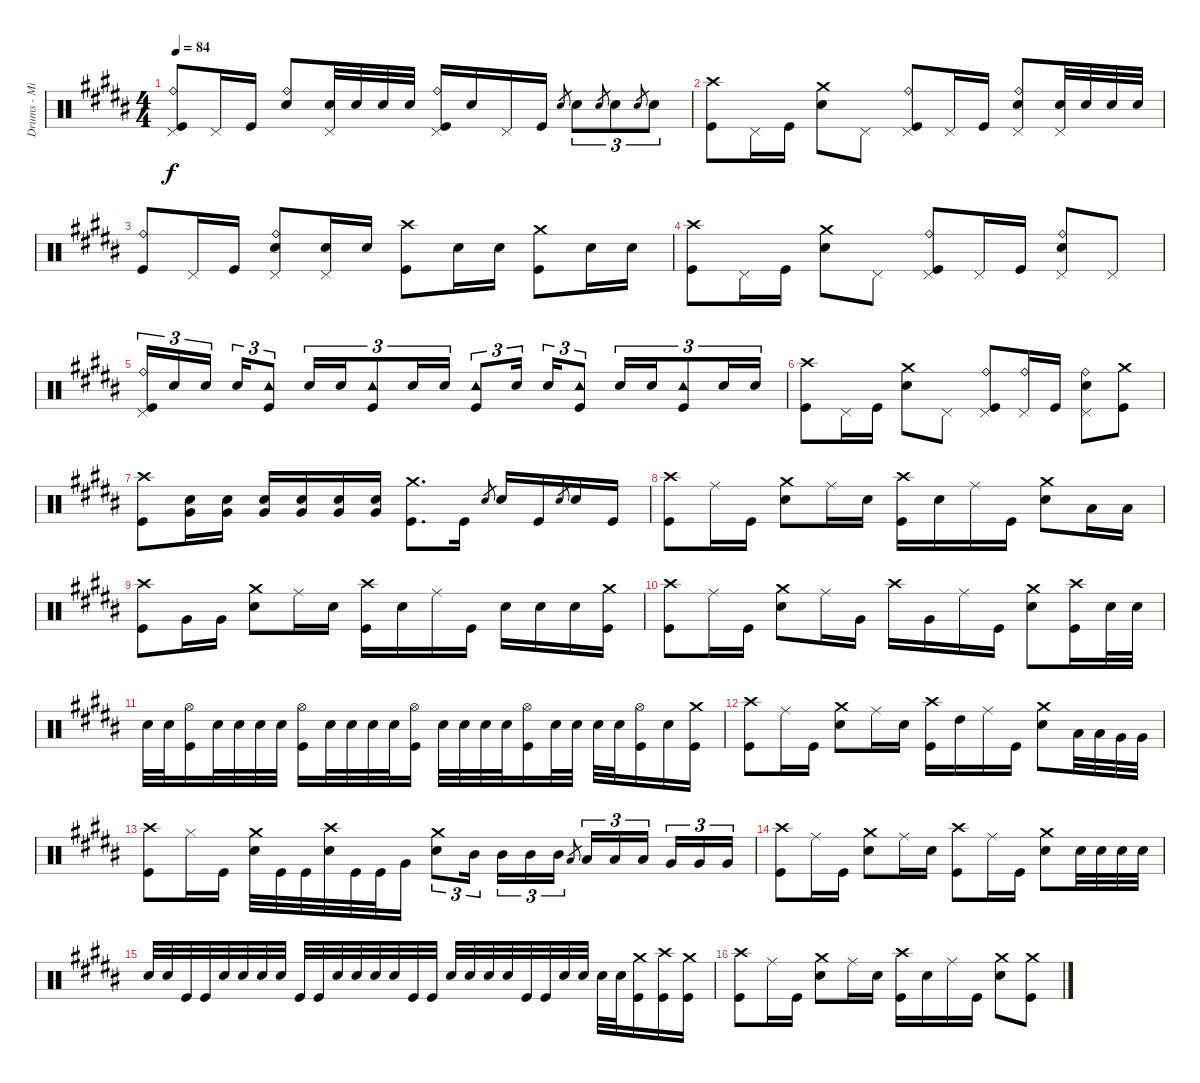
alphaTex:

\track ("Drums - Mike Portnoy" "Drums - Mi") {instrument percussion}
\staff {score}
\articulation defaults
\ts (4 4)
\tempo 84
\clef neutral
\ks b
("Ride (bell)" "Kick (hit)" "Pedal Hi-Hat (hit)").8{dy f} "Pedal Hi-Hat (hit)".16 "Kick (hit)".16 ("Ride (bell)" "Snare (hit) 2").8 ("Snare (hit) 2" "Pedal Hi-Hat (hit)").32 "Snare (hit) 2".32 "Snare (hit) 2".32 "Snare (hit) 2".32 ("Ride (bell)" "Kick (hit)" "Pedal Hi-Hat (hit)").16 "Snare (hit) 2".16 "Pedal Hi-Hat (hit)".16 "Kick (hit)".16 "Snare (hit) 2".8{gr} "Snare (hit) 2".8{tu (3 2)} "Snare (hit) 2".8{gr} "Snare (hit) 2".8{tu (3 2)} "Snare (hit) 2".8{gr} "Snare (hit) 2".8{tu (3 2)} |
("Crash high (hit)" "Kick (hit)").8 "Pedal Hi-Hat (hit)".16 "Kick (hit)".16 ("Crash medium (hit)" "Snare (hit) 2").8 "Pedal Hi-Hat (hit)".8 ("Ride (bell)" "Kick (hit)" "Pedal Hi-Hat (hit)").8 "Pedal Hi-Hat (hit)".16 "Kick (hit)".16 ("Ride (bell)" "Snare (hit) 2" "Pedal Hi-Hat (hit)").8 ("Snare (hit) 2" "Pedal Hi-Hat (hit)").32 "Snare (hit) 2".32 "Snare (hit) 2".32 "Snare (hit) 2".32 |
("Ride (bell)" "Kick (hit)").8 "Pedal Hi-Hat (hit)".16 "Kick (hit)".16 ("Ride (bell)" "Snare (hit) 2" "Pedal Hi-Hat (hit)").8 ("Snare (hit) 2" "Pedal Hi-Hat (hit)").16 "Snare (hit) 2".16 ("Crash high (hit)" "Kick (hit)").8 "Snare (hit) 2".16 "Snare (hit) 2".16 ("Crash medium (hit)" "Kick (hit)").8 "Snare (hit) 2".16 "Snare (hit) 2".16 |
("Crash high (hit)" "Kick (hit)").8 "Pedal Hi-Hat (hit)".16 "Kick (hit)".16 ("Crash medium (hit)" "Snare (hit) 2").8 "Pedal Hi-Hat (hit)".8 ("Ride (bell)" "Kick (hit)" "Pedal Hi-Hat (hit)").8 "Pedal Hi-Hat (hit)".16 "Kick (hit)".16 ("Ride (bell)" "Snare (hit) 2" "Pedal Hi-Hat (hit)").8 "Pedal Hi-Hat (hit)".8 |
("Ride (bell)" "Kick (hit)" "Pedal Hi-Hat (hit)").16{tu (3 2)} "Snare (hit) 2".16{tu (3 2)} "Snare (hit) 2".16{tu (3 2) beam splitsecondary} "Snare (hit) 2".16{tu (3 2)} ("Tambourine (hit)" "Kick (hit)").8{tu (3 2)} "Snare (hit) 2".16{tu (3 2)} "Snare (hit) 2".16{tu (3 2)} ("Tambourine (hit)" "Kick (hit)").8{tu (3 2)} "Snare (hit) 2".16{tu (3 2)} "Snare (hit) 2".16{tu (3 2)} ("Tambourine (hit)" "Kick (hit)").8{tu (3 2)} "Snare (hit) 2".16{tu (3 2) beam splitsecondary} "Snare (hit) 2".16{tu (3 2)} ("Tambourine (hit)" "Kick (hit)").8{tu (3 2)} "Snare (hit) 2".16{tu (3 2)} "Snare (hit) 2".16{tu (3 2)} ("Tambourine (hit)" "Kick (hit)").8{tu (3 2)} "Snare (hit) 2".16{tu (3 2)} "Snare (hit) 2".16{tu (3 2)} |
("Crash high (hit)" "Kick (hit)").8 "Pedal Hi-Hat (hit)".16 "Kick (hit)".16 ("Crash medium (hit)" "Snare (hit) 2").8 "Pedal Hi-Hat (hit)".8 ("Ride (bell)" "Kick (hit)" "Pedal Hi-Hat (hit)").8 ("Ride (bell)" "Pedal Hi-Hat (hit)").16 "Kick (hit)".16 ("Ride (bell)" "Snare (hit) 2" "Pedal Hi-Hat (hit)").8 ("Crash medium (hit)" "Kick (hit)").8 |
("Crash high (hit)" "Kick (hit)").8 ("Very Low Tom (hit)" "Snare (hit) 2").16 ("Very Low Tom (hit)" "Snare (hit) 2").16 ("Very Low Tom (hit)" "Snare (hit) 2").16 ("Very Low Tom (hit)" "Snare (hit) 2").16 ("Very Low Tom (hit)" "Snare (hit) 2").16 ("Very Low Tom (hit)" "Snare (hit) 2").16 ("Crash medium (hit)" "Kick (hit)").8{d} "Kick (hit)".16 "Snare (hit) 2".8{gr} "Snare (hit) 2".16 "Kick (hit)".16 "Snare (hit) 2".8{gr} "Snare (hit) 2".16 "Kick (hit)".16 |
("Crash high (hit)" "Kick (hit)").8 "Ride (middle)".16 "Kick (hit)".16 ("Crash medium (hit)" "Snare (hit) 2").8 "Ride (middle)".16 "Snare (hit) 2".16 ("Crash high (hit)" "Kick (hit)").16 "Snare (hit) 2".16 "Ride (middle)".16 "Kick (hit)".16 ("Crash medium (hit)" "Snare (hit) 2").8 "Low Tom (hit)".16 "Low Tom (hit)".16 |
("Crash high (hit)" "Kick (hit)").8 "Very Low Tom (hit)".16 "Very Low Tom (hit)".16 ("Crash medium (hit)" "Snare (hit) 2").8 "Ride (middle)".16 "Snare (hit) 2".16 ("Crash high (hit)" "Kick (hit)").16 "Snare (hit) 2".16 "Ride (middle)".16 "Kick (hit)".16 "Snare (hit) 2".16 "Snare (hit) 2".16 "Snare (hit) 2".16 ("Crash medium (hit)" "Kick (hit)").16 |
("Crash high (hit)" "Kick (hit)").8 "Ride (middle)".16 "Kick (hit)".16 ("Crash medium (hit)" "Snare (hit) 2").8 "Ride (middle)".16 "Very Low Tom (hit)".16 "Crash high (hit)".16 "Very Low Tom (hit)".16 "Ride (middle)".16 "Kick (hit)".16 ("Crash medium (hit)" "Snare (hit) 2").8 ("Crash high (hit)" "Kick (hit)").16 "Snare (hit) 2".32 "Snare (hit) 2".32 |
"Snare (hit) 2".32 "Snare (hit) 2".32 ("Hi-Hat (open)" "Kick (hit)").16 "Snare (hit) 2".32 "Snare (hit) 2".32 "Snare (hit) 2".32 "Snare (hit) 2".32 ("Hi-Hat (open)" "Kick (hit)").16 "Snare (hit) 2".32 "Snare (hit) 2".32 "Snare (hit) 2".32 "Snare (hit) 2".32 ("Hi-Hat (open)" "Kick (hit)").16 "Snare (hit) 2".32 "Snare (hit) 2".32 "Snare (hit) 2".32 "Snare (hit) 2".32 ("Hi-Hat (open)" "Kick (hit)").16 "Snare (hit) 2".32 "Snare (hit) 2".32 "Snare (hit) 2".32 "Snare (hit) 2".32 ("Hi-Hat (open)" "Kick (hit)").16 "Snare (hit) 2".16 ("Crash medium (hit)" "Kick (hit)").16 |
("Crash high (hit)" "Kick (hit)").8 "Ride (middle)".16 "Kick (hit)".16 ("Crash medium (hit)" "Snare (hit) 2").8 "Ride (middle)".16 "Snare (hit) 2".16 ("Crash high (hit)" "Kick (hit)").16 "High Tom (hit)".16 "Ride (middle)".16 "Kick (hit)".16 ("Crash medium (hit)" "Snare (hit) 2").8 "Low Tom (hit)".32 "Low Tom (hit)".32 "Very Low Tom (hit)".32 "Very Low Tom (hit)".32 |
("Crash high (hit)" "Kick (hit)").8 "Hi-Hat (closed)".16 "Kick (hit)".16 ("Crash medium (hit)" "Snare (hit) 2").32 "Kick (hit)".32 "Kick (hit)".32 ("Crash high (hit)" "Snare (hit) 2").32 "Kick (hit)".32 "Kick (hit)".32 "Very Low Tom (hit)".16 ("Crash medium (hit)" "Snare (hit) 2").8{tu (3 2)} "Mid Tom (hit)".16{tu (3 2) beam splitsecondary} "Mid Tom (hit)".16{tu (3 2)} "Mid Tom (hit)".16{tu (3 2)} "Mid Tom (hit)".16{tu (3 2)} "Low Tom (hit)".8{gr} "Low Tom (hit)".16{tu (3 2)} "Low Tom (hit)".16{tu (3 2)} "Low Tom (hit)".16{tu (3 2) beam splitsecondary} "Very Low Tom (hit)".16{tu (3 2)} "Very Low Tom (hit)".16{tu (3 2)} "Very Low Tom (hit)".16{tu (3 2)} |
("Crash high (hit)" "Kick (hit)").8 "Ride (middle)".16 "Kick (hit)".16 ("Crash medium (hit)" "Snare (hit) 2").8 "Ride (middle)".16 "Snare (hit) 2".16 ("Crash high (hit)" "Kick (hit)").8 "Ride (middle)".16 "Kick (hit)".16 ("Crash medium (hit)" "Snare (hit) 2").8 "Snare (hit) 2".32 "Snare (hit) 2".32 "Snare (hit) 2".32 "Snare (hit) 2".32 |
"Snare (hit) 2".32 "Snare (hit) 2".32 "Kick (hit)".32 "Kick (hit)".32 "Snare (hit) 2".32 "Snare (hit) 2".32 "Snare (hit) 2".32 "Snare (hit) 2".32 "Kick (hit)".32 "Kick (hit)".32 "Snare (hit) 2".32 "Snare (hit) 2".32 "Snare (hit) 2".32 "Snare (hit) 2".32 "Kick (hit)".32 "Kick (hit)".32 "Snare (hit) 2".32 "Snare (hit) 2".32 "Snare (hit) 2".32 "Snare (hit) 2".32 "Kick (hit)".32 "Kick (hit)".32 "Snare (hit) 2".32 "Snare (hit) 2".32 "Snare (hit) 2".32 "Snare (hit) 2".32 ("Crash medium (hit)" "Kick (hit)").16 ("Crash high (hit)" "Kick (hit)").16 ("Crash medium (hit)" "Kick (hit)").16 |
("Crash high (hit)" "Kick (hit)").8 "Ride (middle)".16 "Kick (hit)".16 ("Crash medium (hit)" "Snare (hit) 2").8 "Ride (middle)".16 "Snare (hit) 2".16 ("Crash high (hit)" "Kick (hit)").16 "Snare (hit) 2".16 "Ride (middle)".16 "Kick (hit)".16 ("Crash medium (hit)" "Snare (hit) 2").8 ("Crash medium (hit)" "Kick (hit)").8
